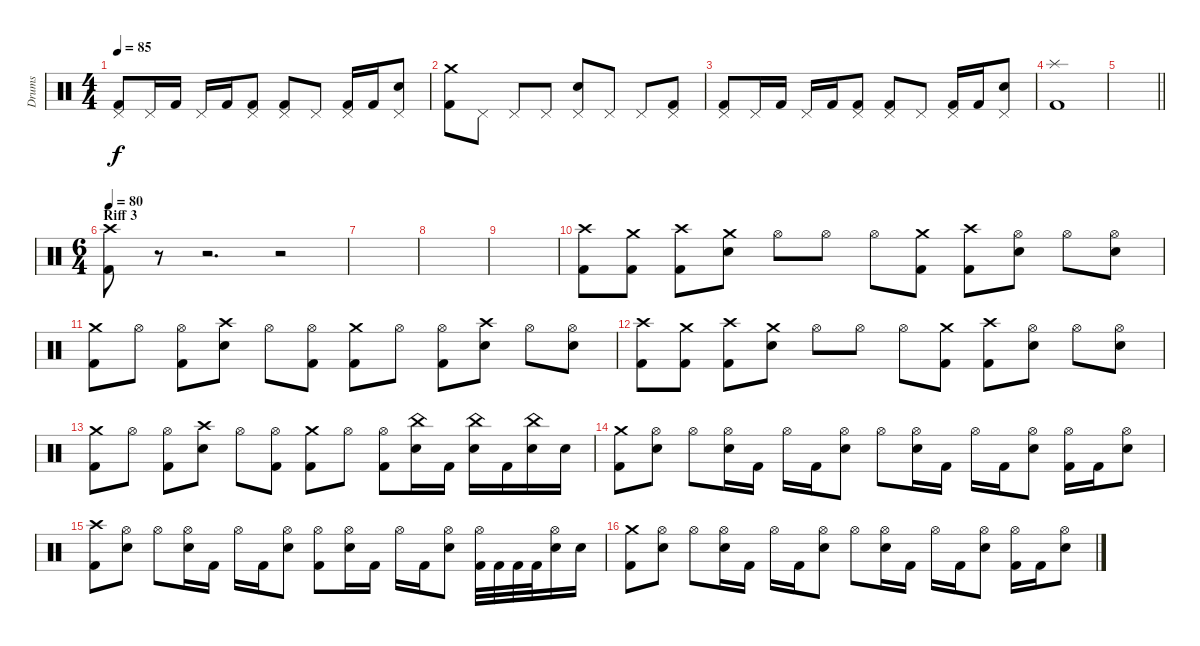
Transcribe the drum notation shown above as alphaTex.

\track ("Drums" "Drums") {instrument percussion}
\staff {score}
\articulation defaults
\ts (4 4)
\tempo 85
\clef neutral
\ks c
("Pedal Hi-Hat (hit)" "Kick (hit) 2").8{dy f} "Pedal Hi-Hat (hit)".16 "Kick (hit) 2".16 "Pedal Hi-Hat (hit)".16 "Kick (hit) 2".16 ("Pedal Hi-Hat (hit)" "Kick (hit) 2").8 ("Pedal Hi-Hat (hit)" "Kick (hit) 2").8 "Pedal Hi-Hat (hit)".8 ("Pedal Hi-Hat (hit)" "Kick (hit) 2").16 "Kick (hit) 2".16 ("Pedal Hi-Hat (hit)" "Electric Snare (hit)").8 |
("Crash medium (hit)" "Kick (hit) 2").8 "Pedal Hi-Hat (hit)".8 "Pedal Hi-Hat (hit)".8 "Pedal Hi-Hat (hit)".8 ("Pedal Hi-Hat (hit)" "Electric Snare (hit)").8 "Pedal Hi-Hat (hit)".8 "Pedal Hi-Hat (hit)".8 ("Pedal Hi-Hat (hit)" "Kick (hit) 2").8 |
("Pedal Hi-Hat (hit)" "Kick (hit) 2").8 "Pedal Hi-Hat (hit)".16 "Kick (hit) 2".16 "Pedal Hi-Hat (hit)".16 "Kick (hit) 2".16 ("Pedal Hi-Hat (hit)" "Kick (hit) 2").8 ("Pedal Hi-Hat (hit)" "Kick (hit) 2").8 "Pedal Hi-Hat (hit)".8 ("Pedal Hi-Hat (hit)" "Kick (hit) 2").16 "Kick (hit) 2".16 ("Pedal Hi-Hat (hit)" "Electric Snare (hit)").8 |
("Splash (hit)" "Kick (hit) 2").1 |
\barLineRight lightlight
|
\ts (6 4)
\section ("" "Riff 3")
\tempo 80
("Crash high (hit)" "Kick (hit) 2").8 r.8 r.2{d} r.2 |
|
|
|
("Crash high (hit)" "Kick (hit) 2").8 ("Crash medium (hit)" "Kick (hit) 2").8 ("Crash high (hit)" "Kick (hit) 2").8 ("Crash medium (hit)" "Electric Snare (hit)").8 "Hi-Hat (open)".8 "Hi-Hat (open)".8 "Hi-Hat (open)".8 ("Crash medium (hit)" "Kick (hit) 2").8 ("Crash high (hit)" "Kick (hit) 2").8 ("Hi-Hat (open)" "Electric Snare (hit)").8 "Hi-Hat (open)".8 ("Hi-Hat (open)" "Electric Snare (hit)").8 |
("Crash medium (hit)" "Kick (hit) 2").8 "Hi-Hat (open)".8 ("Hi-Hat (open)" "Kick (hit) 2").8 ("Crash high (hit)" "Electric Snare (hit)").8 "Hi-Hat (open)".8 ("Hi-Hat (open)" "Kick (hit) 2").8 ("Crash medium (hit)" "Kick (hit) 2").8 "Hi-Hat (open)".8 ("Hi-Hat (open)" "Kick (hit) 2").8 ("Crash high (hit)" "Electric Snare (hit)").8 "Hi-Hat (open)".8 ("Hi-Hat (open)" "Electric Snare (hit)").8 |
("Crash high (hit)" "Kick (hit) 2").8 ("Crash medium (hit)" "Kick (hit) 2").8 ("Crash high (hit)" "Kick (hit) 2").8 ("Crash medium (hit)" "Electric Snare (hit)").8 "Hi-Hat (open)".8 "Hi-Hat (open)".8 "Hi-Hat (open)".8 ("Crash medium (hit)" "Kick (hit) 2").8 ("Crash high (hit)" "Kick (hit) 2").8 ("Hi-Hat (open)" "Electric Snare (hit)").8 "Hi-Hat (open)".8 ("Hi-Hat (open)" "Electric Snare (hit)").8 |
("Crash medium (hit)" "Kick (hit) 2").8 "Hi-Hat (open)".8 ("Hi-Hat (open)" "Kick (hit) 2").8 ("Crash high (hit)" "Electric Snare (hit)").8 "Hi-Hat (open)".8 ("Hi-Hat (open)" "Kick (hit) 2").8 ("Crash medium (hit)" "Kick (hit) 2").8 "Hi-Hat (open)".8 ("Hi-Hat (open)" "Kick (hit) 2").8 ("China (hit)" "Electric Snare (hit)").16 "Kick (hit) 2".16 ("China (hit)" "Electric Snare (hit)").16 "Kick (hit) 2".16 ("China (hit)" "Electric Snare (hit)").16 "Electric Snare (hit)".16 |
("Crash medium (hit)" "Kick (hit) 2").8 ("Hi-Hat (open)" "Electric Snare (hit)").8 "Hi-Hat (open)".8 ("Hi-Hat (open)" "Electric Snare (hit)").16 "Kick (hit) 2".16 "Hi-Hat (open)".16 "Kick (hit) 2".16 ("Hi-Hat (open)" "Electric Snare (hit)").8 "Hi-Hat (open)".8 ("Hi-Hat (open)" "Electric Snare (hit)").16 "Kick (hit) 2".16 "Hi-Hat (open)".16 "Kick (hit) 2".16 ("Hi-Hat (open)" "Electric Snare (hit)").8 ("Hi-Hat (open)" "Kick (hit) 2").16 "Kick (hit) 2".16 ("Hi-Hat (open)" "Electric Snare (hit)").8 |
("Crash high (hit)" "Kick (hit) 2").8 ("Hi-Hat (open)" "Electric Snare (hit)").8 "Hi-Hat (open)".8 ("Hi-Hat (open)" "Electric Snare (hit)").16 "Kick (hit) 2".16 "Hi-Hat (open)".16 "Kick (hit) 2".16 ("Hi-Hat (open)" "Electric Snare (hit)").8 ("Hi-Hat (open)" "Kick (hit) 2").8 ("Hi-Hat (open)" "Electric Snare (hit)").16 "Kick (hit) 2".16 "Hi-Hat (open)".16 "Kick (hit) 2".16 ("Hi-Hat (open)" "Electric Snare (hit)").8 ("Hi-Hat (open)" "Kick (hit) 2").32 "Kick (hit) 2".32 "Kick (hit) 2".32 "Kick (hit) 2".32 ("Hi-Hat (open)" "Electric Snare (hit)").16 "Electric Snare (hit)".16 |
("Crash medium (hit)" "Kick (hit) 2").8 ("Hi-Hat (open)" "Electric Snare (hit)").8 "Hi-Hat (open)".8 ("Hi-Hat (open)" "Electric Snare (hit)").16 "Kick (hit) 2".16 "Hi-Hat (open)".16 "Kick (hit) 2".16 ("Hi-Hat (open)" "Electric Snare (hit)").8 "Hi-Hat (open)".8 ("Hi-Hat (open)" "Electric Snare (hit)").16 "Kick (hit) 2".16 "Hi-Hat (open)".16 "Kick (hit) 2".16 ("Hi-Hat (open)" "Electric Snare (hit)").8 ("Hi-Hat (open)" "Kick (hit) 2").16 "Kick (hit) 2".16 ("Hi-Hat (open)" "Electric Snare (hit)").8
